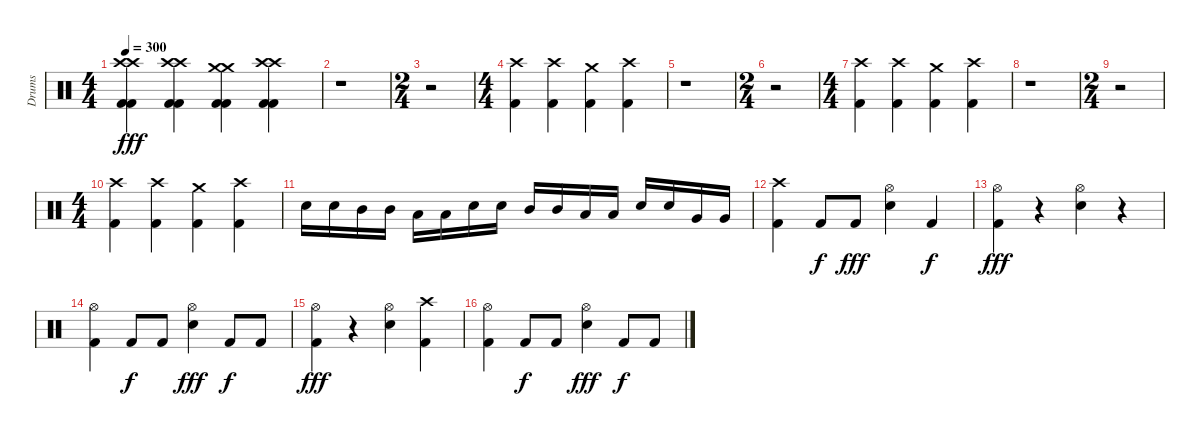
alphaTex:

\track ("Drums" "Drums") {instrument percussion}
\staff {score}
\articulation defaults
\ts (4 4)
\tempo 300
\clef neutral
\ks c
("Kick (hit) 2" "Crash high (hit)" "Crash high (hit)" "Kick (hit) 2").4{dy fff} ("Kick (hit) 2" "Crash high (hit)" "Crash high (hit)" "Kick (hit) 2").4 ("Kick (hit) 2" "Crash medium (hit)" "Crash medium (hit)" "Kick (hit) 2").4 ("Kick (hit) 2" "Crash high (hit)" "Crash high (hit)" "Kick (hit) 2").4 |
r.1 |
\ts (2 4)
r.2 |
\ts (4 4)
("Kick (hit) 2" "Crash high (hit)").4 ("Kick (hit) 2" "Crash high (hit)").4 ("Kick (hit) 2" "Crash medium (hit)").4 ("Kick (hit) 2" "Crash high (hit)").4 |
r.1 |
\ts (2 4)
r.2 |
\ts (4 4)
("Kick (hit) 2" "Crash high (hit)").4 ("Kick (hit) 2" "Crash high (hit)").4 ("Kick (hit) 2" "Crash medium (hit)").4 ("Kick (hit) 2" "Crash high (hit)").4 |
r.1 |
\ts (2 4)
r.2 |
\ts (4 4)
("Kick (hit) 2" "Crash high (hit)").4 ("Kick (hit) 2" "Crash high (hit)").4 ("Kick (hit) 2" "Crash medium (hit)").4 ("Kick (hit) 2" "Crash high (hit)").4 |
"Snare (hit) 2".16 "Snare (hit) 2".16 "Mid Tom (hit)".16 "Mid Tom (hit)".16 "Low Tom (hit)".16 "Low Tom (hit)".16 "Snare (hit) 2".16 "Snare (hit) 2".16 "Mid Tom (hit)".16 "Mid Tom (hit)".16 "Low Tom (hit)".16 "Low Tom (hit)".16 "Snare (hit) 2".16 "Snare (hit) 2".16 "Very Low Tom (hit)".16 "Very Low Tom (hit)".16 |
("Kick (hit) 2" "Crash high (hit)").4 "Kick (hit) 2".8{dy f} "Kick (hit) 2".8{dy fff} ("Snare (hit) 2" "Hi-Hat (open)").4 "Kick (hit) 2".4{dy f} |
("Kick (hit) 2" "Hi-Hat (open)").4{dy fff} r.4 ("Snare (hit) 2" "Hi-Hat (open)").4 r.4 |
("Kick (hit) 2" "Hi-Hat (open)").4 "Kick (hit) 2".8{dy f} "Kick (hit) 2".8 ("Snare (hit) 2" "Hi-Hat (open)").4{dy fff} "Kick (hit) 2".8{dy f} "Kick (hit) 2".8 |
("Kick (hit) 2" "Hi-Hat (open)").4{dy fff} r.4 ("Snare (hit) 2" "Hi-Hat (open)").4 ("Kick (hit) 2" "Crash high (hit)").4 |
("Kick (hit) 2" "Hi-Hat (open)").4 "Kick (hit) 2".8{dy f} "Kick (hit) 2".8 ("Snare (hit) 2" "Hi-Hat (open)").4{dy fff} "Kick (hit) 2".8{dy f} "Kick (hit) 2".8
